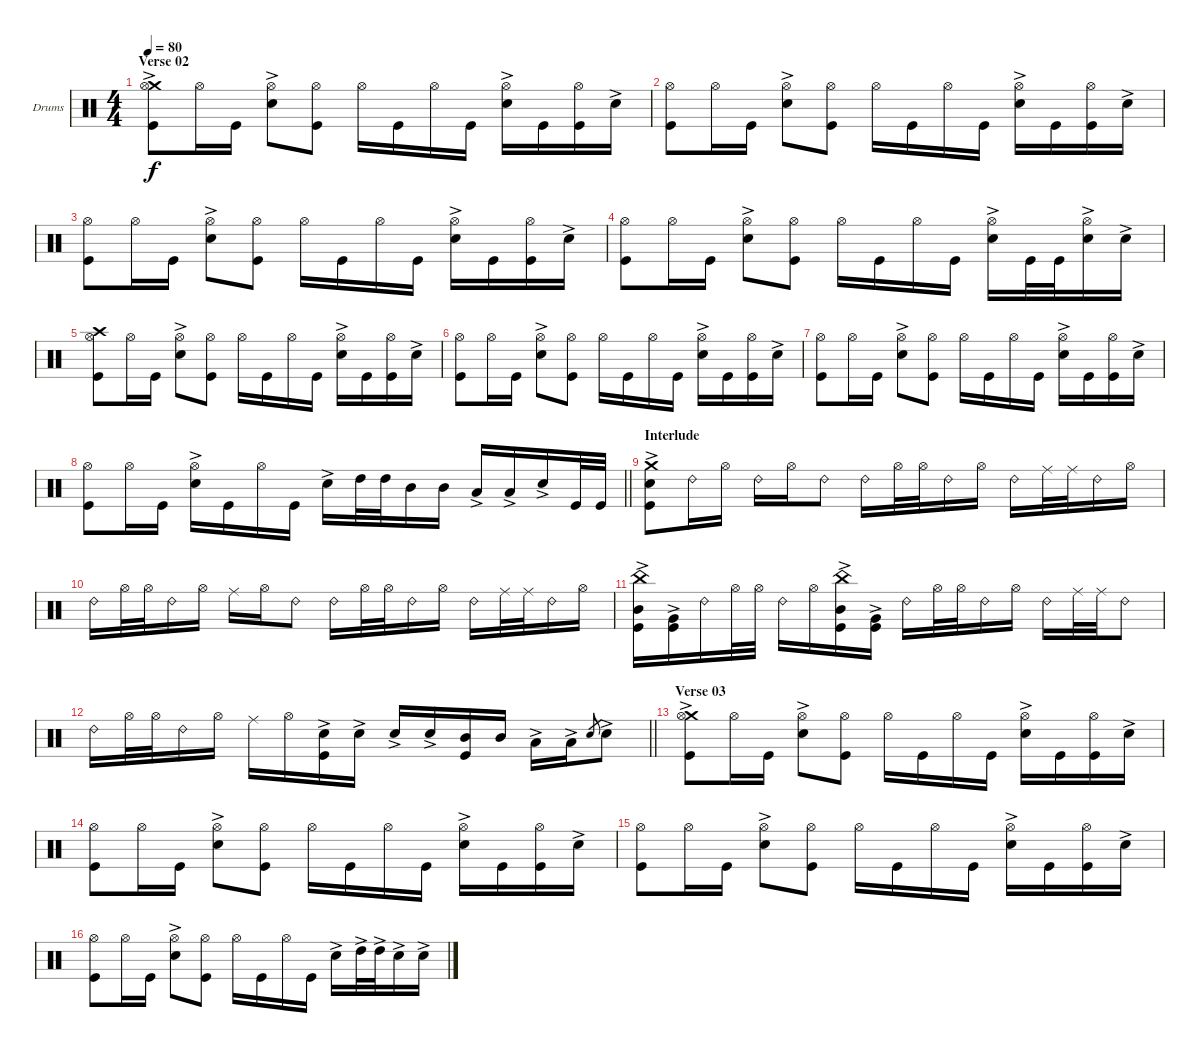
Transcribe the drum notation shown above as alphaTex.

\bracketExtendMode groupsimilarinstruments
\firstSystemTrackNameOrientation horizontal
\otherSystemsTrackNameOrientation horizontal
\track ("Drumkit" "Drums") {instrument percussion}
\staff {score}
\articulation defaults
\ts (4 4)
\section ("" "Verse 02")
\tempo 80
\clef neutral
\ks c
("Crash medium (hit)"{ac} "Kick (hit)" "Hi-Hat (open)").8{dy f} "Hi-Hat (open)".16 "Kick (hit)".16 ("Snare (hit) 2"{ac} "Hi-Hat (open)").8 ("Kick (hit)" "Hi-Hat (open)").8 "Hi-Hat (open)".16 "Kick (hit)".16 "Hi-Hat (open)".16 "Kick (hit)".16 ("Snare (hit) 2"{ac} "Hi-Hat (open)").16 "Kick (hit)".16 ("Kick (hit)" "Hi-Hat (open)").16 "Snare (hit) 2"{ac}.16 |
("Kick (hit)" "Hi-Hat (open)").8 "Hi-Hat (open)".16 "Kick (hit)".16 ("Snare (hit) 2"{ac} "Hi-Hat (open)").8 ("Kick (hit)" "Hi-Hat (open)").8 "Hi-Hat (open)".16 "Kick (hit)".16 "Hi-Hat (open)".16 "Kick (hit)".16 ("Snare (hit) 2"{ac} "Hi-Hat (open)").16 "Kick (hit)".16 ("Kick (hit)" "Hi-Hat (open)").16 "Snare (hit) 2"{ac}.16 |
("Kick (hit)" "Hi-Hat (open)").8 "Hi-Hat (open)".16 "Kick (hit)".16 ("Snare (hit) 2"{ac} "Hi-Hat (open)").8 ("Kick (hit)" "Hi-Hat (open)").8 "Hi-Hat (open)".16 "Kick (hit)".16 "Hi-Hat (open)".16 "Kick (hit)".16 ("Snare (hit) 2"{ac} "Hi-Hat (open)").16 "Kick (hit)".16 ("Kick (hit)" "Hi-Hat (open)").16 "Snare (hit) 2"{ac}.16 |
("Kick (hit)" "Hi-Hat (open)").8 "Hi-Hat (open)".16 "Kick (hit)".16 ("Snare (hit) 2"{ac} "Hi-Hat (open)").8 ("Kick (hit)" "Hi-Hat (open)").8 "Hi-Hat (open)".16 "Kick (hit)".16 "Hi-Hat (open)".16 "Kick (hit)".16 ("Snare (hit) 2"{ac} "Hi-Hat (open)").16 "Kick (hit)".32 "Kick (hit)".32 ("Snare (hit) 2"{ac} "Hi-Hat (open)").16 "Snare (hit) 2"{ac}.16 |
("Crash high (hit)" "Kick (hit)" "Hi-Hat (open)").8 "Hi-Hat (open)".16 "Kick (hit)".16 ("Snare (hit) 2"{ac} "Hi-Hat (open)").8 ("Kick (hit)" "Hi-Hat (open)").8 "Hi-Hat (open)".16 "Kick (hit)".16 "Hi-Hat (open)".16 "Kick (hit)".16 ("Snare (hit) 2"{ac} "Hi-Hat (open)").16 "Kick (hit)".16 ("Kick (hit)" "Hi-Hat (open)").16 "Snare (hit) 2"{ac}.16 |
("Kick (hit)" "Hi-Hat (open)").8 "Hi-Hat (open)".16 "Kick (hit)".16 ("Snare (hit) 2"{ac} "Hi-Hat (open)").8 ("Kick (hit)" "Hi-Hat (open)").8 "Hi-Hat (open)".16 "Kick (hit)".16 "Hi-Hat (open)".16 "Kick (hit)".16 ("Snare (hit) 2"{ac} "Hi-Hat (open)").16 "Kick (hit)".16 ("Kick (hit)" "Hi-Hat (open)").16 "Snare (hit) 2"{ac}.16 |
("Kick (hit)" "Hi-Hat (open)").8 "Hi-Hat (open)".16 "Kick (hit)".16 ("Snare (hit) 2"{ac} "Hi-Hat (open)").8 ("Kick (hit)" "Hi-Hat (open)").8 "Hi-Hat (open)".16 "Kick (hit)".16 "Hi-Hat (open)".16 "Kick (hit)".16 ("Snare (hit) 2"{ac} "Hi-Hat (open)").16 "Kick (hit)".16 ("Kick (hit)" "Hi-Hat (open)").16 "Snare (hit) 2"{ac}.16 |
\barLineRight lightlight
("Kick (hit)" "Hi-Hat (open)").8 "Hi-Hat (open)".16 "Kick (hit)".16 ("Snare (hit) 2"{ac} "Hi-Hat (open)").16 "Kick (hit)".16 "Hi-Hat (open)".16 "Kick (hit)".16 "Snare (hit) 2"{ac}.16 "High Tom (hit)".32 "High Tom (hit)".32 "Mid Tom (hit)".16 "Mid Tom (hit)".16 "Low Tom (hit)"{ac}.16 "Low Tom (hit)"{ac}.16 "Snare (hit) 2"{ac}.16 "Kick (hit)".32 "Kick (hit)".32 |
\section ("" "Interlude")
("Crash medium (hit)"{ac} "Snare (hit) 2"{ac} "Kick (hit)").8 "Ride (bell) 2".16 "Hi-Hat (open)".16 "Ride (bell) 2".16 "Hi-Hat (open)".16 "Ride (bell) 2".8 "Ride (bell) 2".16 "Hi-Hat (open)".32 "Hi-Hat (open)".32 "Ride (bell) 2".16 "Hi-Hat (open)".16 "Ride (bell) 2".16 "Ride (middle)".32 "Ride (middle)".32 "Ride (bell) 2".16 "Hi-Hat (open)".16 |
"Ride (bell) 2".16 "Hi-Hat (open)".32 "Hi-Hat (open)".32 "Ride (bell) 2".16 "Hi-Hat (open)".16 "Ride (middle)".16 "Hi-Hat (open)".16 "Ride (bell) 2".8 "Ride (bell) 2".16 "Hi-Hat (open)".32 "Hi-Hat (open)".32 "Ride (bell) 2".16 "Hi-Hat (open)".16 "Ride (bell) 2".16 "Ride (middle)".32 "Ride (middle)".32 "Ride (bell) 2".16 "Hi-Hat (open)".16 |
("Kick (hit)" "China (hit)"{ac} "Mid Tom (hit)").16 ("Very Low Tom (hit)"{ac} "Kick (hit)").16 "Ride (bell) 2".16 "Hi-Hat (open)".32 "Hi-Hat (open)".32 "Ride (bell) 2".16 "Hi-Hat (open)".16 ("Kick (hit)" "China (hit)"{ac} "Mid Tom (hit)").16 ("Very Low Tom (hit)"{ac} "Kick (hit)").16 "Ride (bell) 2".16 "Hi-Hat (open)".32 "Hi-Hat (open)".32 "Ride (bell) 2".16 "Hi-Hat (open)".16 "Ride (bell) 2".16 "Ride (middle)".32 "Ride (middle)".32 "Ride (bell) 2".8 |
\barLineRight lightlight "Ride (bell) 2".16 "Hi-Hat (open)".32 "Hi-Hat (open)".32 "Ride (bell) 2".16 "Hi-Hat (open)".16 "Ride (middle)".16 "Hi-Hat (open)".16
("Snare (hit) 2"{ac} "Kick (hit)").16 "Snare (hit) 2"{ac}.16 "Snare (hit) 2"{ac}.16 "Snare (hit) 2"{ac}.16 ("Mid Tom (hit)" "Kick (hit)").16 "Mid Tom (hit)".16 "Low Tom (hit)"{ac}.16 "Low Tom (hit)"{ac}.16 "Snare (hit) 2".8{gr} "Snare (hit) 2"{ac}.8 |
\section ("" "Verse 03")
("Crash medium (hit)"{ac} "Kick (hit)" "Hi-Hat (open)").8 "Hi-Hat (open)".16 "Kick (hit)".16 ("Snare (hit) 2"{ac} "Hi-Hat (open)").8 ("Kick (hit)" "Hi-Hat (open)").8 "Hi-Hat (open)".16 "Kick (hit)".16 "Hi-Hat (open)".16 "Kick (hit)".16 ("Snare (hit) 2"{ac} "Hi-Hat (open)").16 "Kick (hit)".16 ("Kick (hit)" "Hi-Hat (open)").16 "Snare (hit) 2"{ac}.16 |
("Kick (hit)" "Hi-Hat (open)").8 "Hi-Hat (open)".16 "Kick (hit)".16 ("Snare (hit) 2"{ac} "Hi-Hat (open)").8 ("Kick (hit)" "Hi-Hat (open)").8 "Hi-Hat (open)".16 "Kick (hit)".16 "Hi-Hat (open)".16 "Kick (hit)".16 ("Snare (hit) 2"{ac} "Hi-Hat (open)").16 "Kick (hit)".16 ("Kick (hit)" "Hi-Hat (open)").16 "Snare (hit) 2"{ac}.16 |
("Kick (hit)" "Hi-Hat (open)").8 "Hi-Hat (open)".16 "Kick (hit)".16 ("Snare (hit) 2"{ac} "Hi-Hat (open)").8 ("Kick (hit)" "Hi-Hat (open)").8 "Hi-Hat (open)".16 "Kick (hit)".16 "Hi-Hat (open)".16 "Kick (hit)".16 ("Snare (hit) 2"{ac} "Hi-Hat (open)").16 "Kick (hit)".16 ("Kick (hit)" "Hi-Hat (open)").16 "Snare (hit) 2"{ac}.16 |
("Kick (hit)" "Hi-Hat (open)").8 "Hi-Hat (open)".16 "Kick (hit)".16 ("Snare (hit) 2"{ac} "Hi-Hat (open)").8 ("Kick (hit)" "Hi-Hat (open)").8 "Hi-Hat (open)".16 "Kick (hit)".16 "Hi-Hat (open)".16 "Kick (hit)".16 "Snare (hit) 2"{ac}.16 "High Tom (hit)"{ac}.32 "High Tom (hit)"{ac}.32 "Snare (hit) 2"{ac}.16 "Snare (hit) 2"{ac}.16
